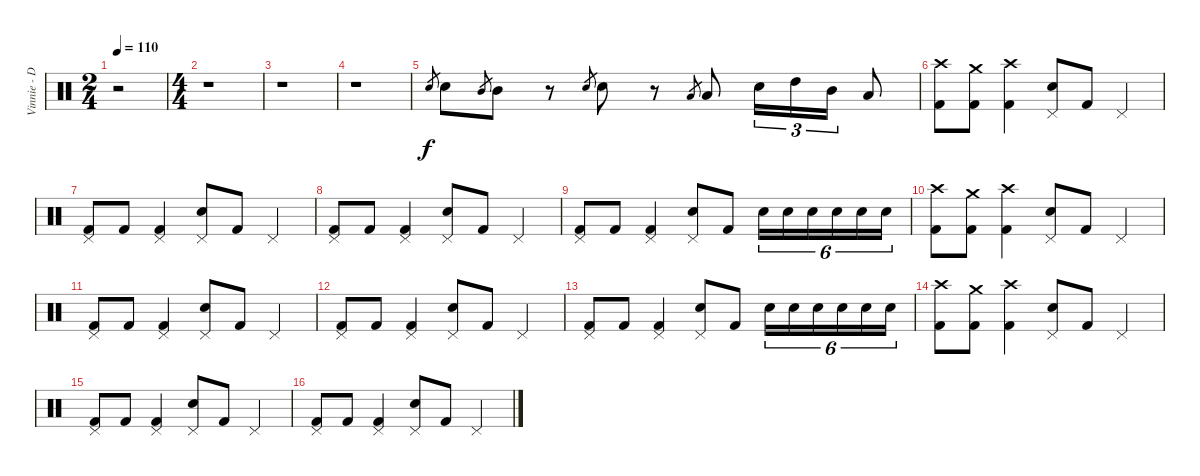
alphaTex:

\track ("Vinnie - Drums" "Vinnie - D") {instrument percussion}
\staff {score}
\articulation defaults
\ts (2 4)
\tempo 110
\clef neutral
\ks c
r.2{dy f} |
\ts (4 4)
r.1 |
r.1 |
r.1 |
"Electric Snare (hit)".8{gr} "Electric Snare (hit)".8 "Mid Tom (hit)".8{gr} "Mid Tom (hit)".8 r.8 "Electric Snare (hit)".8{gr} "Electric Snare (hit)".8 r.8 "Low Tom (hit)".8{gr} "Low Tom (hit)".8 "Electric Snare (hit)".16{tu (3 2)} "High Tom (hit)".16{tu (3 2)} "Mid Tom (hit)".16{tu (3 2)} "Low Tom (hit)".8 |
("Crash high (hit)" "Kick (hit) 2").8 ("Crash medium (hit)" "Kick (hit) 2").8 ("Crash high (hit)" "Kick (hit) 2").4 ("Pedal Hi-Hat (hit)" "Electric Snare (hit)").8 "Kick (hit) 2".8 "Pedal Hi-Hat (hit)".4 |
("Pedal Hi-Hat (hit)" "Kick (hit) 2").8 "Kick (hit) 2".8 ("Pedal Hi-Hat (hit)" "Kick (hit) 2").4 ("Pedal Hi-Hat (hit)" "Electric Snare (hit)").8 "Kick (hit) 2".8 "Pedal Hi-Hat (hit)".4 |
("Pedal Hi-Hat (hit)" "Kick (hit) 2").8 "Kick (hit) 2".8 ("Pedal Hi-Hat (hit)" "Kick (hit) 2").4 ("Pedal Hi-Hat (hit)" "Electric Snare (hit)").8 "Kick (hit) 2".8 "Pedal Hi-Hat (hit)".4 |
("Pedal Hi-Hat (hit)" "Kick (hit) 2").8 "Kick (hit) 2".8 ("Pedal Hi-Hat (hit)" "Kick (hit) 2").4 ("Pedal Hi-Hat (hit)" "Electric Snare (hit)").8 "Kick (hit) 2".8 "Electric Snare (hit)".16{tu (6 4)} "Electric Snare (hit)".16{tu (6 4)} "Electric Snare (hit)".16{tu (6 4)} "Electric Snare (hit)".16{tu (6 4)} "Electric Snare (hit)".16{tu (6 4)} "Electric Snare (hit)".16{tu (6 4)} |
("Crash high (hit)" "Kick (hit) 2").8 ("Crash medium (hit)" "Kick (hit) 2").8 ("Crash high (hit)" "Kick (hit) 2").4 ("Pedal Hi-Hat (hit)" "Electric Snare (hit)").8 "Kick (hit) 2".8 "Pedal Hi-Hat (hit)".4 |
("Pedal Hi-Hat (hit)" "Kick (hit) 2").8 "Kick (hit) 2".8 ("Pedal Hi-Hat (hit)" "Kick (hit) 2").4 ("Pedal Hi-Hat (hit)" "Electric Snare (hit)").8 "Kick (hit) 2".8 "Pedal Hi-Hat (hit)".4 |
("Pedal Hi-Hat (hit)" "Kick (hit) 2").8 "Kick (hit) 2".8 ("Pedal Hi-Hat (hit)" "Kick (hit) 2").4 ("Pedal Hi-Hat (hit)" "Electric Snare (hit)").8 "Kick (hit) 2".8 "Pedal Hi-Hat (hit)".4 |
("Pedal Hi-Hat (hit)" "Kick (hit) 2").8 "Kick (hit) 2".8 ("Pedal Hi-Hat (hit)" "Kick (hit) 2").4 ("Pedal Hi-Hat (hit)" "Electric Snare (hit)").8 "Kick (hit) 2".8 "Electric Snare (hit)".16{tu (6 4)} "Electric Snare (hit)".16{tu (6 4)} "Electric Snare (hit)".16{tu (6 4)} "Electric Snare (hit)".16{tu (6 4)} "Electric Snare (hit)".16{tu (6 4)} "Electric Snare (hit)".16{tu (6 4)} |
("Crash high (hit)" "Kick (hit) 2").8 ("Crash medium (hit)" "Kick (hit) 2").8 ("Crash high (hit)" "Kick (hit) 2").4 ("Pedal Hi-Hat (hit)" "Electric Snare (hit)").8 "Kick (hit) 2".8 "Pedal Hi-Hat (hit)".4 |
("Pedal Hi-Hat (hit)" "Kick (hit) 2").8 "Kick (hit) 2".8 ("Pedal Hi-Hat (hit)" "Kick (hit) 2").4 ("Pedal Hi-Hat (hit)" "Electric Snare (hit)").8 "Kick (hit) 2".8 "Pedal Hi-Hat (hit)".4 |
("Pedal Hi-Hat (hit)" "Kick (hit) 2").8 "Kick (hit) 2".8 ("Pedal Hi-Hat (hit)" "Kick (hit) 2").4 ("Pedal Hi-Hat (hit)" "Electric Snare (hit)").8 "Kick (hit) 2".8 "Pedal Hi-Hat (hit)".4
